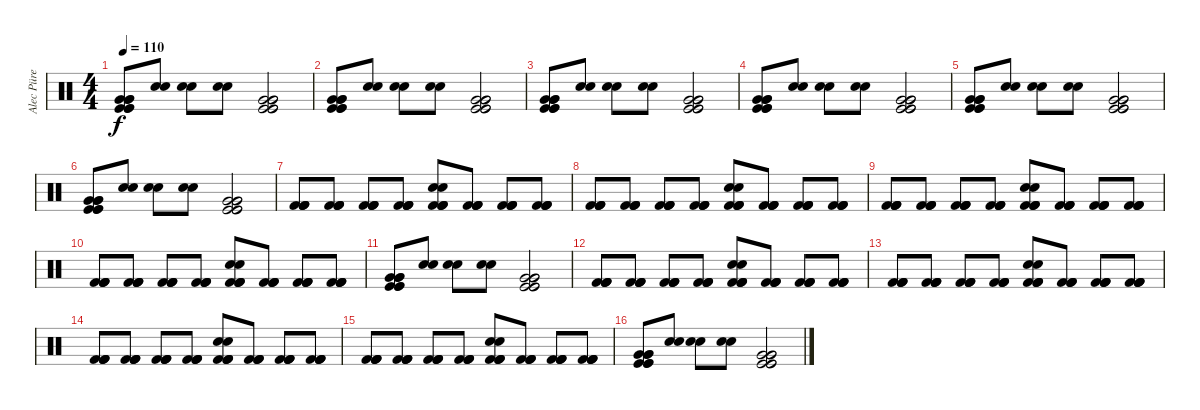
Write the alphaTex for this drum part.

\track ("Alec Püre" "Alec Püre") {instrument percussion}
\staff {score}
\articulation defaults
\ts (4 4)
\tempo 110
\clef neutral
\ks c
("Very Low Tom (hit)" "Very Low Tom (hit)" "Very Low Tom (hit)" "Kick (hit)" "Kick (hit)" "Kick (hit)").8{dy f} ("Electric Snare (hit)" "Electric Snare (hit)").8 ("Electric Snare (hit)" "Electric Snare (hit)").8 ("Electric Snare (hit)" "Electric Snare (hit)").8 ("Very Low Tom (hit)" "Very Low Tom (hit)" "Very Low Tom (hit)" "Kick (hit)" "Kick (hit)" "Kick (hit)").2 |
("Very Low Tom (hit)" "Very Low Tom (hit)" "Very Low Tom (hit)" "Kick (hit)" "Kick (hit)" "Kick (hit)").8 ("Electric Snare (hit)" "Electric Snare (hit)").8 ("Electric Snare (hit)" "Electric Snare (hit)").8 ("Electric Snare (hit)" "Electric Snare (hit)").8 ("Very Low Tom (hit)" "Very Low Tom (hit)" "Very Low Tom (hit)" "Kick (hit)" "Kick (hit)" "Kick (hit)").2 |
("Very Low Tom (hit)" "Very Low Tom (hit)" "Very Low Tom (hit)" "Kick (hit)" "Kick (hit)" "Kick (hit)").8 ("Electric Snare (hit)" "Electric Snare (hit)").8 ("Electric Snare (hit)" "Electric Snare (hit)").8 ("Electric Snare (hit)" "Electric Snare (hit)").8 ("Very Low Tom (hit)" "Very Low Tom (hit)" "Very Low Tom (hit)" "Kick (hit)" "Kick (hit)" "Kick (hit)").2 |
("Very Low Tom (hit)" "Very Low Tom (hit)" "Very Low Tom (hit)" "Kick (hit)" "Kick (hit)" "Kick (hit)").8 ("Electric Snare (hit)" "Electric Snare (hit)").8 ("Electric Snare (hit)" "Electric Snare (hit)").8 ("Electric Snare (hit)" "Electric Snare (hit)").8 ("Very Low Tom (hit)" "Very Low Tom (hit)" "Very Low Tom (hit)" "Kick (hit)" "Kick (hit)" "Kick (hit)").2 |
("Very Low Tom (hit)" "Very Low Tom (hit)" "Very Low Tom (hit)" "Kick (hit)" "Kick (hit)" "Kick (hit)").8 ("Electric Snare (hit)" "Electric Snare (hit)").8 ("Electric Snare (hit)" "Electric Snare (hit)").8 ("Electric Snare (hit)" "Electric Snare (hit)").8 ("Very Low Tom (hit)" "Very Low Tom (hit)" "Very Low Tom (hit)" "Kick (hit)" "Kick (hit)" "Kick (hit)").2 |
("Very Low Tom (hit)" "Very Low Tom (hit)" "Very Low Tom (hit)" "Kick (hit)" "Kick (hit)" "Kick (hit)").8 ("Electric Snare (hit)" "Electric Snare (hit)").8 ("Electric Snare (hit)" "Electric Snare (hit)").8 ("Electric Snare (hit)" "Electric Snare (hit)").8 ("Very Low Tom (hit)" "Very Low Tom (hit)" "Very Low Tom (hit)" "Kick (hit)" "Kick (hit)" "Kick (hit)").2 |
("Kick (hit) 2" "Kick (hit) 2" "Kick (hit) 2" "Kick (hit) 2").8 ("Kick (hit) 2" "Kick (hit) 2" "Kick (hit) 2" "Kick (hit) 2").8 ("Kick (hit) 2" "Kick (hit) 2" "Kick (hit) 2" "Kick (hit) 2").8 ("Kick (hit) 2" "Kick (hit) 2" "Kick (hit) 2" "Kick (hit) 2").8 ("Snare (hit) 2" "Snare (hit) 2" "Kick (hit) 2" "Kick (hit) 2" "Kick (hit) 2" "Kick (hit) 2").8 ("Kick (hit) 2" "Kick (hit) 2" "Kick (hit) 2" "Kick (hit) 2").8 ("Kick (hit) 2" "Kick (hit) 2" "Kick (hit) 2" "Kick (hit) 2").8 ("Kick (hit) 2" "Kick (hit) 2" "Kick (hit) 2" "Kick (hit) 2").8 |
("Kick (hit) 2" "Kick (hit) 2" "Kick (hit) 2" "Kick (hit) 2").8 ("Kick (hit) 2" "Kick (hit) 2" "Kick (hit) 2" "Kick (hit) 2").8 ("Kick (hit) 2" "Kick (hit) 2" "Kick (hit) 2" "Kick (hit) 2").8 ("Kick (hit) 2" "Kick (hit) 2" "Kick (hit) 2" "Kick (hit) 2").8 ("Snare (hit) 2" "Snare (hit) 2" "Kick (hit) 2" "Kick (hit) 2" "Kick (hit) 2" "Kick (hit) 2").8 ("Kick (hit) 2" "Kick (hit) 2" "Kick (hit) 2" "Kick (hit) 2").8 ("Kick (hit) 2" "Kick (hit) 2" "Kick (hit) 2" "Kick (hit) 2").8 ("Kick (hit) 2" "Kick (hit) 2" "Kick (hit) 2" "Kick (hit) 2").8 |
("Kick (hit) 2" "Kick (hit) 2" "Kick (hit) 2" "Kick (hit) 2").8 ("Kick (hit) 2" "Kick (hit) 2" "Kick (hit) 2" "Kick (hit) 2").8 ("Kick (hit) 2" "Kick (hit) 2" "Kick (hit) 2" "Kick (hit) 2").8 ("Kick (hit) 2" "Kick (hit) 2" "Kick (hit) 2" "Kick (hit) 2").8 ("Snare (hit) 2" "Snare (hit) 2" "Kick (hit) 2" "Kick (hit) 2" "Kick (hit) 2" "Kick (hit) 2").8 ("Kick (hit) 2" "Kick (hit) 2" "Kick (hit) 2" "Kick (hit) 2").8 ("Kick (hit) 2" "Kick (hit) 2" "Kick (hit) 2" "Kick (hit) 2").8 ("Kick (hit) 2" "Kick (hit) 2" "Kick (hit) 2" "Kick (hit) 2").8 |
("Kick (hit) 2" "Kick (hit) 2" "Kick (hit) 2" "Kick (hit) 2").8 ("Kick (hit) 2" "Kick (hit) 2" "Kick (hit) 2" "Kick (hit) 2").8 ("Kick (hit) 2" "Kick (hit) 2" "Kick (hit) 2" "Kick (hit) 2").8 ("Kick (hit) 2" "Kick (hit) 2" "Kick (hit) 2" "Kick (hit) 2").8 ("Snare (hit) 2" "Snare (hit) 2" "Kick (hit) 2" "Kick (hit) 2" "Kick (hit) 2" "Kick (hit) 2").8 ("Kick (hit) 2" "Kick (hit) 2" "Kick (hit) 2" "Kick (hit) 2").8 ("Kick (hit) 2" "Kick (hit) 2" "Kick (hit) 2" "Kick (hit) 2").8 ("Kick (hit) 2" "Kick (hit) 2" "Kick (hit) 2" "Kick (hit) 2").8 |
("Very Low Tom (hit)" "Very Low Tom (hit)" "Very Low Tom (hit)" "Kick (hit)" "Kick (hit)" "Kick (hit)").8 ("Electric Snare (hit)" "Electric Snare (hit)").8 ("Electric Snare (hit)" "Electric Snare (hit)").8 ("Electric Snare (hit)" "Electric Snare (hit)").8 ("Very Low Tom (hit)" "Very Low Tom (hit)" "Very Low Tom (hit)" "Kick (hit)" "Kick (hit)" "Kick (hit)").2 |
("Kick (hit) 2" "Kick (hit) 2" "Kick (hit) 2" "Kick (hit) 2").8 ("Kick (hit) 2" "Kick (hit) 2" "Kick (hit) 2" "Kick (hit) 2").8 ("Kick (hit) 2" "Kick (hit) 2" "Kick (hit) 2" "Kick (hit) 2").8 ("Kick (hit) 2" "Kick (hit) 2" "Kick (hit) 2" "Kick (hit) 2").8 ("Snare (hit) 2" "Snare (hit) 2" "Kick (hit) 2" "Kick (hit) 2" "Kick (hit) 2" "Kick (hit) 2").8 ("Kick (hit) 2" "Kick (hit) 2" "Kick (hit) 2" "Kick (hit) 2").8 ("Kick (hit) 2" "Kick (hit) 2" "Kick (hit) 2" "Kick (hit) 2").8 ("Kick (hit) 2" "Kick (hit) 2" "Kick (hit) 2" "Kick (hit) 2").8 |
("Kick (hit) 2" "Kick (hit) 2" "Kick (hit) 2" "Kick (hit) 2").8 ("Kick (hit) 2" "Kick (hit) 2" "Kick (hit) 2" "Kick (hit) 2").8 ("Kick (hit) 2" "Kick (hit) 2" "Kick (hit) 2" "Kick (hit) 2").8 ("Kick (hit) 2" "Kick (hit) 2" "Kick (hit) 2" "Kick (hit) 2").8 ("Snare (hit) 2" "Snare (hit) 2" "Kick (hit) 2" "Kick (hit) 2" "Kick (hit) 2" "Kick (hit) 2").8 ("Kick (hit) 2" "Kick (hit) 2" "Kick (hit) 2" "Kick (hit) 2").8 ("Kick (hit) 2" "Kick (hit) 2" "Kick (hit) 2" "Kick (hit) 2").8 ("Kick (hit) 2" "Kick (hit) 2" "Kick (hit) 2" "Kick (hit) 2").8 |
("Kick (hit) 2" "Kick (hit) 2" "Kick (hit) 2" "Kick (hit) 2").8 ("Kick (hit) 2" "Kick (hit) 2" "Kick (hit) 2" "Kick (hit) 2").8 ("Kick (hit) 2" "Kick (hit) 2" "Kick (hit) 2" "Kick (hit) 2").8 ("Kick (hit) 2" "Kick (hit) 2" "Kick (hit) 2" "Kick (hit) 2").8 ("Snare (hit) 2" "Snare (hit) 2" "Kick (hit) 2" "Kick (hit) 2" "Kick (hit) 2" "Kick (hit) 2").8 ("Kick (hit) 2" "Kick (hit) 2" "Kick (hit) 2" "Kick (hit) 2").8 ("Kick (hit) 2" "Kick (hit) 2" "Kick (hit) 2" "Kick (hit) 2").8 ("Kick (hit) 2" "Kick (hit) 2" "Kick (hit) 2" "Kick (hit) 2").8 |
("Kick (hit) 2" "Kick (hit) 2" "Kick (hit) 2" "Kick (hit) 2").8 ("Kick (hit) 2" "Kick (hit) 2" "Kick (hit) 2" "Kick (hit) 2").8 ("Kick (hit) 2" "Kick (hit) 2" "Kick (hit) 2" "Kick (hit) 2").8 ("Kick (hit) 2" "Kick (hit) 2" "Kick (hit) 2" "Kick (hit) 2").8 ("Snare (hit) 2" "Snare (hit) 2" "Kick (hit) 2" "Kick (hit) 2" "Kick (hit) 2" "Kick (hit) 2").8 ("Kick (hit) 2" "Kick (hit) 2" "Kick (hit) 2" "Kick (hit) 2").8 ("Kick (hit) 2" "Kick (hit) 2" "Kick (hit) 2" "Kick (hit) 2").8 ("Kick (hit) 2" "Kick (hit) 2" "Kick (hit) 2" "Kick (hit) 2").8 |
("Very Low Tom (hit)" "Very Low Tom (hit)" "Very Low Tom (hit)" "Kick (hit)" "Kick (hit)" "Kick (hit)").8 ("Electric Snare (hit)" "Electric Snare (hit)").8 ("Electric Snare (hit)" "Electric Snare (hit)").8 ("Electric Snare (hit)" "Electric Snare (hit)").8 ("Very Low Tom (hit)" "Very Low Tom (hit)" "Very Low Tom (hit)" "Kick (hit)" "Kick (hit)" "Kick (hit)").2
